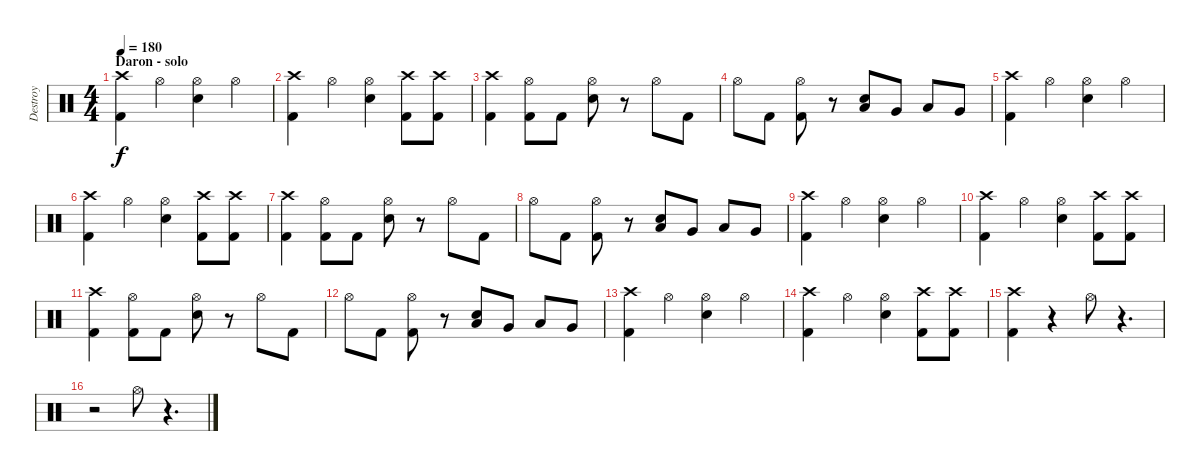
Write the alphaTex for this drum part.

\track ("Destroy" "Destroy") {instrument percussion}
\staff {score}
\articulation defaults
\ts (4 4)
\section ("" "Daron - solo")
\tempo 180
\clef neutral
\ks c
("Crash high (hit)" "Kick (hit) 2").4{dy f} "Hi-Hat (open)".4 ("Hi-Hat (open)" "Snare (hit) 2").4 "Hi-Hat (open)".4 |
("Crash high (hit)" "Kick (hit) 2").4 "Hi-Hat (open)".4 ("Hi-Hat (open)" "Snare (hit) 2").4 ("Crash high (hit)" "Kick (hit) 2").8 ("Crash high (hit)" "Kick (hit) 2").8 |
("Crash high (hit)" "Kick (hit) 2").4 ("Hi-Hat (open)" "Kick (hit) 2").8 "Kick (hit) 2".8 ("Hi-Hat (open)" "Snare (hit) 2").8 r.8 "Hi-Hat (open)".8 "Kick (hit) 2".8 |
"Hi-Hat (open)".8 "Kick (hit) 2".8 ("Hi-Hat (open)" "Kick (hit) 2").8 r.8 ("Low Tom (hit)" "Snare (hit) 2").8 "Very Low Tom (hit)".8 "Low Floor Tom (hit)".8 "Very Low Tom (hit)".8 |
("Crash high (hit)" "Kick (hit) 2").4 "Hi-Hat (open)".4 ("Hi-Hat (open)" "Snare (hit) 2").4 "Hi-Hat (open)".4 |
("Crash high (hit)" "Kick (hit) 2").4 "Hi-Hat (open)".4 ("Hi-Hat (open)" "Snare (hit) 2").4 ("Crash high (hit)" "Kick (hit) 2").8 ("Crash high (hit)" "Kick (hit) 2").8 |
("Crash high (hit)" "Kick (hit) 2").4 ("Hi-Hat (open)" "Kick (hit) 2").8 "Kick (hit) 2".8 ("Hi-Hat (open)" "Snare (hit) 2").8 r.8 "Hi-Hat (open)".8 "Kick (hit) 2".8 |
"Hi-Hat (open)".8 "Kick (hit) 2".8 ("Hi-Hat (open)" "Kick (hit) 2").8 r.8 ("Low Tom (hit)" "Snare (hit) 2").8 "Very Low Tom (hit)".8 "Low Floor Tom (hit)".8 "Very Low Tom (hit)".8 |
("Crash high (hit)" "Kick (hit) 2").4 "Hi-Hat (open)".4 ("Hi-Hat (open)" "Snare (hit) 2").4 "Hi-Hat (open)".4 |
("Crash high (hit)" "Kick (hit) 2").4 "Hi-Hat (open)".4 ("Hi-Hat (open)" "Snare (hit) 2").4 ("Crash high (hit)" "Kick (hit) 2").8 ("Crash high (hit)" "Kick (hit) 2").8 |
("Crash high (hit)" "Kick (hit) 2").4 ("Hi-Hat (open)" "Kick (hit) 2").8 "Kick (hit) 2".8 ("Hi-Hat (open)" "Snare (hit) 2").8 r.8 "Hi-Hat (open)".8 "Kick (hit) 2".8 |
"Hi-Hat (open)".8 "Kick (hit) 2".8 ("Hi-Hat (open)" "Kick (hit) 2").8 r.8 ("Low Tom (hit)" "Snare (hit) 2").8 "Very Low Tom (hit)".8 "Low Floor Tom (hit)".8 "Very Low Tom (hit)".8 |
("Crash high (hit)" "Kick (hit) 2").4 "Hi-Hat (open)".4 ("Hi-Hat (open)" "Snare (hit) 2").4 "Hi-Hat (open)".4 |
("Crash high (hit)" "Kick (hit) 2").4 "Hi-Hat (open)".4 ("Hi-Hat (open)" "Snare (hit) 2").4 ("Crash high (hit)" "Kick (hit) 2").8 ("Crash high (hit)" "Kick (hit) 2").8 |
("Crash high (hit)" "Kick (hit) 2").4 r.4 "Hi-Hat (open)".8 r.4{d} |
r.2 "Hi-Hat (open)".8 r.4{d}
